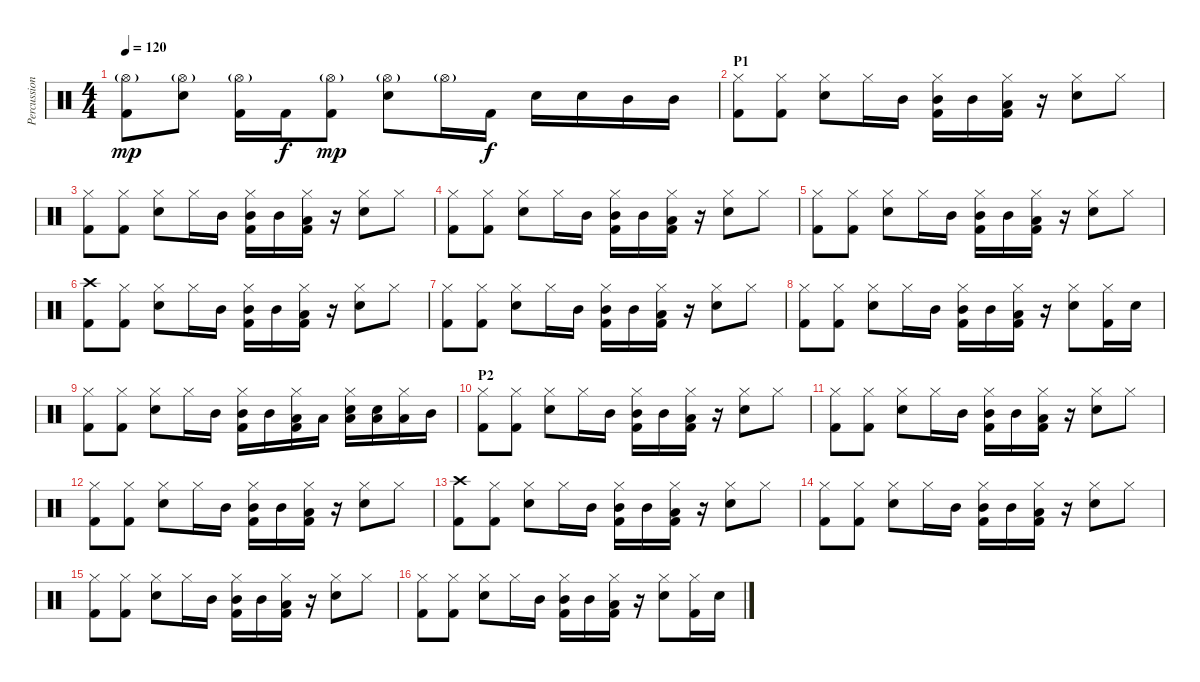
\track ("Percussion" "Percussion") {instrument percussion}
\staff {score}
\articulation defaults
\ts (4 4)
\tempo 120
\clef neutral
\ks c
("Hi-Hat (open)"{g} "Kick (hit) 2").8{dy mp} ("Hi-Hat (open)"{g} "Snare (hit) 2").8 ("Hi-Hat (open)"{g} "Kick (hit) 2").16 "Kick (hit) 2".16{dy f} ("Hi-Hat (open)"{g} "Kick (hit) 2").8{dy mp} ("Hi-Hat (open)"{g} "Snare (hit) 2").8 "Hi-Hat (open)"{g}.16 "Kick (hit) 2".16{dy f} "Snare (hit) 2".16 "Snare (hit) 2".16 "Mid Tom (hit)".16 "Mid Tom (hit)".16 |
\section ("" "P1")
("Hi-Hat (closed)" "Kick (hit) 2").8 ("Hi-Hat (closed)" "Kick (hit) 2").8 ("Hi-Hat (closed)" "Snare (hit) 2").8 "Hi-Hat (closed)".16 "Mid Tom (hit)".16 ("Hi-Hat (closed)" "Mid Tom (hit)" "Kick (hit) 2").16 "Mid Tom (hit)".16 ("Hi-Hat (closed)" "Low Tom (hit)" "Kick (hit) 2").16 r.16 ("Hi-Hat (closed)" "Snare (hit) 2").8 "Hi-Hat (closed)".8 |
("Hi-Hat (closed)" "Kick (hit) 2").8 ("Hi-Hat (closed)" "Kick (hit) 2").8 ("Hi-Hat (closed)" "Snare (hit) 2").8 "Hi-Hat (closed)".16 "Mid Tom (hit)".16 ("Hi-Hat (closed)" "Mid Tom (hit)" "Kick (hit) 2").16 "Mid Tom (hit)".16 ("Hi-Hat (closed)" "Low Tom (hit)" "Kick (hit) 2").16 r.16 ("Hi-Hat (closed)" "Snare (hit) 2").8 "Hi-Hat (closed)".8 |
("Hi-Hat (closed)" "Kick (hit) 2").8 ("Hi-Hat (closed)" "Kick (hit) 2").8 ("Hi-Hat (closed)" "Snare (hit) 2").8 "Hi-Hat (closed)".16 "Mid Tom (hit)".16 ("Hi-Hat (closed)" "Mid Tom (hit)" "Kick (hit) 2").16 "Mid Tom (hit)".16 ("Hi-Hat (closed)" "Low Tom (hit)" "Kick (hit) 2").16 r.16 ("Hi-Hat (closed)" "Snare (hit) 2").8 "Hi-Hat (closed)".8 |
("Hi-Hat (closed)" "Kick (hit) 2").8 ("Hi-Hat (closed)" "Kick (hit) 2").8 ("Hi-Hat (closed)" "Snare (hit) 2").8 "Hi-Hat (closed)".16 "Mid Tom (hit)".16 ("Hi-Hat (closed)" "Mid Tom (hit)" "Kick (hit) 2").16 "Mid Tom (hit)".16 ("Hi-Hat (closed)" "Low Tom (hit)" "Kick (hit) 2").16 r.16 ("Hi-Hat (closed)" "Snare (hit) 2").8 "Hi-Hat (closed)".8 |
("Crash high (hit)" "Kick (hit) 2").8 ("Hi-Hat (closed)" "Kick (hit) 2").8 ("Hi-Hat (closed)" "Snare (hit) 2").8 "Hi-Hat (closed)".16 "Mid Tom (hit)".16 ("Hi-Hat (closed)" "Mid Tom (hit)" "Kick (hit) 2").16 "Mid Tom (hit)".16 ("Hi-Hat (closed)" "Low Tom (hit)" "Kick (hit) 2").16 r.16 ("Hi-Hat (closed)" "Snare (hit) 2").8 "Hi-Hat (closed)".8 |
("Hi-Hat (closed)" "Kick (hit) 2").8 ("Hi-Hat (closed)" "Kick (hit) 2").8 ("Hi-Hat (closed)" "Snare (hit) 2").8 "Hi-Hat (closed)".16 "Mid Tom (hit)".16 ("Hi-Hat (closed)" "Mid Tom (hit)" "Kick (hit) 2").16 "Mid Tom (hit)".16 ("Hi-Hat (closed)" "Low Tom (hit)" "Kick (hit) 2").16 r.16 ("Hi-Hat (closed)" "Snare (hit) 2").8 "Hi-Hat (closed)".8 |
("Hi-Hat (closed)" "Kick (hit) 2").8 ("Hi-Hat (closed)" "Kick (hit) 2").8 ("Hi-Hat (closed)" "Snare (hit) 2").8 "Hi-Hat (closed)".16 "Mid Tom (hit)".16 ("Hi-Hat (closed)" "Mid Tom (hit)" "Kick (hit) 2").16 "Mid Tom (hit)".16 ("Hi-Hat (closed)" "Low Tom (hit)" "Kick (hit) 2").16 r.16 ("Hi-Hat (closed)" "Snare (hit) 2").8 ("Hi-Hat (closed)" "Kick (hit) 2").16 "Snare (hit) 2".16 |
("Hi-Hat (closed)" "Kick (hit) 2").8 ("Hi-Hat (closed)" "Kick (hit) 2").8 ("Hi-Hat (closed)" "Snare (hit) 2").8 "Hi-Hat (closed)".16 "Mid Tom (hit)".16 ("Hi-Hat (closed)" "Mid Tom (hit)" "Kick (hit) 2").16 "Mid Tom (hit)".16 ("Hi-Hat (closed)" "Low Tom (hit)" "Kick (hit) 2").16 "Low Tom (hit)".16 ("Hi-Hat (closed)" "Low Tom (hit)" "Snare (hit) 2").16 ("Low Tom (hit)" "Snare (hit) 2").16 ("Hi-Hat (closed)" "Low Tom (hit)").16 "Mid Tom (hit)".16 |
\section ("" "P2")
("Hi-Hat (closed)" "Kick (hit) 2").8 ("Hi-Hat (closed)" "Kick (hit) 2").8 ("Hi-Hat (closed)" "Snare (hit) 2").8 "Hi-Hat (closed)".16 "Mid Tom (hit)".16 ("Hi-Hat (closed)" "Mid Tom (hit)" "Kick (hit) 2").16 "Mid Tom (hit)".16 ("Hi-Hat (closed)" "Low Tom (hit)" "Kick (hit) 2").16 r.16 ("Hi-Hat (closed)" "Snare (hit) 2").8 "Hi-Hat (closed)".8 |
("Hi-Hat (closed)" "Kick (hit) 2").8 ("Hi-Hat (closed)" "Kick (hit) 2").8 ("Hi-Hat (closed)" "Snare (hit) 2").8 "Hi-Hat (closed)".16 "Mid Tom (hit)".16 ("Hi-Hat (closed)" "Mid Tom (hit)" "Kick (hit) 2").16 "Mid Tom (hit)".16 ("Hi-Hat (closed)" "Low Tom (hit)" "Kick (hit) 2").16 r.16 ("Hi-Hat (closed)" "Snare (hit) 2").8 "Hi-Hat (closed)".8 |
("Hi-Hat (closed)" "Kick (hit) 2").8 ("Hi-Hat (closed)" "Kick (hit) 2").8 ("Hi-Hat (closed)" "Snare (hit) 2").8 "Hi-Hat (closed)".16 "Mid Tom (hit)".16 ("Hi-Hat (closed)" "Mid Tom (hit)" "Kick (hit) 2").16 "Mid Tom (hit)".16 ("Hi-Hat (closed)" "Low Tom (hit)" "Kick (hit) 2").16 r.16 ("Hi-Hat (closed)" "Snare (hit) 2").8 "Hi-Hat (closed)".8 |
("Crash high (hit)" "Kick (hit) 2").8 ("Hi-Hat (closed)" "Kick (hit) 2").8 ("Hi-Hat (closed)" "Snare (hit) 2").8 "Hi-Hat (closed)".16 "Mid Tom (hit)".16 ("Hi-Hat (closed)" "Mid Tom (hit)" "Kick (hit) 2").16 "Mid Tom (hit)".16 ("Hi-Hat (closed)" "Low Tom (hit)" "Kick (hit) 2").16 r.16 ("Hi-Hat (closed)" "Snare (hit) 2").8 "Hi-Hat (closed)".8 |
("Hi-Hat (closed)" "Kick (hit) 2").8 ("Hi-Hat (closed)" "Kick (hit) 2").8 ("Hi-Hat (closed)" "Snare (hit) 2").8 "Hi-Hat (closed)".16 "Mid Tom (hit)".16 ("Hi-Hat (closed)" "Mid Tom (hit)" "Kick (hit) 2").16 "Mid Tom (hit)".16 ("Hi-Hat (closed)" "Low Tom (hit)" "Kick (hit) 2").16 r.16 ("Hi-Hat (closed)" "Snare (hit) 2").8 "Hi-Hat (closed)".8 |
("Hi-Hat (closed)" "Kick (hit) 2").8 ("Hi-Hat (closed)" "Kick (hit) 2").8 ("Hi-Hat (closed)" "Snare (hit) 2").8 "Hi-Hat (closed)".16 "Mid Tom (hit)".16 ("Hi-Hat (closed)" "Mid Tom (hit)" "Kick (hit) 2").16 "Mid Tom (hit)".16 ("Hi-Hat (closed)" "Low Tom (hit)" "Kick (hit) 2").16 r.16 ("Hi-Hat (closed)" "Snare (hit) 2").8 "Hi-Hat (closed)".8 |
("Hi-Hat (closed)" "Kick (hit) 2").8 ("Hi-Hat (closed)" "Kick (hit) 2").8 ("Hi-Hat (closed)" "Snare (hit) 2").8 "Hi-Hat (closed)".16 "Mid Tom (hit)".16 ("Hi-Hat (closed)" "Mid Tom (hit)" "Kick (hit) 2").16 "Mid Tom (hit)".16 ("Hi-Hat (closed)" "Low Tom (hit)" "Kick (hit) 2").16 r.16 ("Hi-Hat (closed)" "Snare (hit) 2").8 ("Hi-Hat (closed)" "Kick (hit) 2").16 "Snare (hit) 2".16
